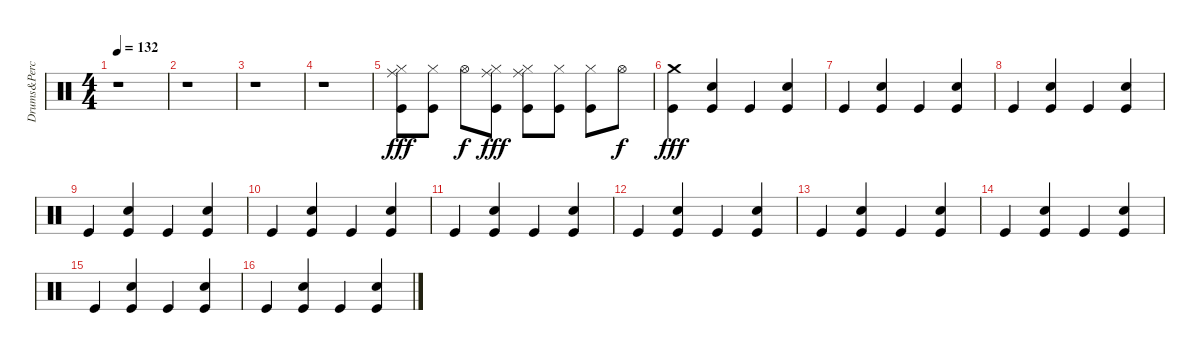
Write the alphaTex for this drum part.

\track ("Drums&Perc." "Drums&Perc") {instrument percussion}
\staff {score}
\articulation defaults
\ts (4 4)
\tempo 132
\clef neutral
\ks c
r.1{dy fff} |
r.1 |
r.1 |
r.1 |
("Kick (hit)" "Ride (middle)" "Hi-Hat (closed)").8 ("Hi-Hat (closed)" "Kick (hit)").8 "Hi-Hat (open)".8{dy f} ("Hi-Hat (closed)" "Ride (middle)" "Kick (hit)").8{dy fff} ("Hi-Hat (closed)" "Kick (hit)" "Ride (middle)").8 ("Kick (hit)" "Hi-Hat (closed)").8 ("Kick (hit)" "Hi-Hat (closed)").8 "Hi-Hat (open)".8{dy f} |
("Crash medium (hit)" "Kick (hit)").4{dy fff} ("Hand Clap (hit)" "Kick (hit)").4 "Kick (hit)".4 ("Hand Clap (hit)" "Kick (hit)").4 |
"Kick (hit)".4 ("Hand Clap (hit)" "Kick (hit)").4 "Kick (hit)".4 ("Hand Clap (hit)" "Kick (hit)").4 |
"Kick (hit)".4 ("Hand Clap (hit)" "Kick (hit)").4 "Kick (hit)".4 ("Hand Clap (hit)" "Kick (hit)").4 |
"Kick (hit)".4 ("Hand Clap (hit)" "Kick (hit)").4 "Kick (hit)".4 ("Hand Clap (hit)" "Kick (hit)").4 |
"Kick (hit)".4 ("Hand Clap (hit)" "Kick (hit)").4 "Kick (hit)".4 ("Hand Clap (hit)" "Kick (hit)").4 |
"Kick (hit)".4 ("Hand Clap (hit)" "Kick (hit)").4 "Kick (hit)".4 ("Hand Clap (hit)" "Kick (hit)").4 |
"Kick (hit)".4 ("Hand Clap (hit)" "Kick (hit)").4 "Kick (hit)".4 ("Hand Clap (hit)" "Kick (hit)").4 |
"Kick (hit)".4 ("Hand Clap (hit)" "Kick (hit)").4 "Kick (hit)".4 ("Hand Clap (hit)" "Kick (hit)").4 |
"Kick (hit)".4 ("Kick (hit)" "Hand Clap (hit)").4 "Kick (hit)".4 ("Hand Clap (hit)" "Kick (hit)").4 |
"Kick (hit)".4 ("Hand Clap (hit)" "Kick (hit)").4 "Kick (hit)".4 ("Hand Clap (hit)" "Kick (hit)").4 |
"Kick (hit)".4 ("Kick (hit)" "Hand Clap (hit)").4 "Kick (hit)".4 ("Kick (hit)" "Hand Clap (hit)").4
